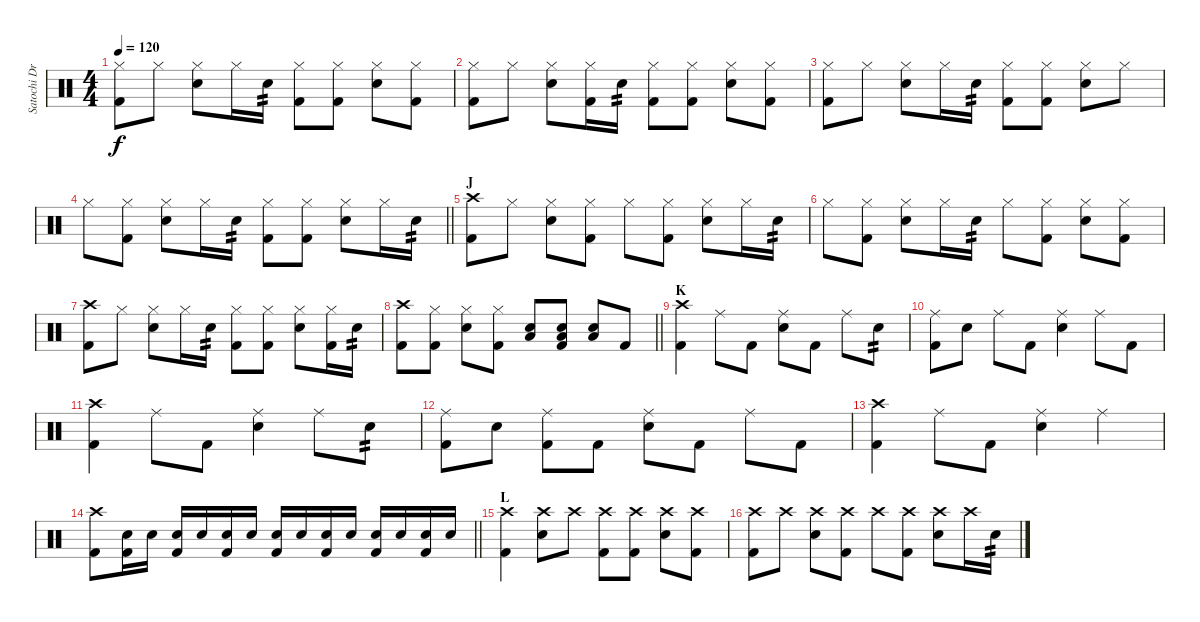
\track ("Satochi Drums" "Satochi Dr") {instrument percussion}
\staff {score}
\articulation defaults
\ts (4 4)
\tempo 120
\clef neutral
\ks c
("Hi-Hat (closed)" "Kick (hit) 2").8{dy f} "Hi-Hat (closed)".8 ("Hi-Hat (closed)" "Snare (hit) 2").8 "Hi-Hat (closed)".16 "Snare (hit) 2".16{tp 2} ("Hi-Hat (closed)" "Kick (hit) 2").8 ("Hi-Hat (closed)" "Kick (hit) 2").8 ("Hi-Hat (closed)" "Snare (hit) 2").8 ("Hi-Hat (closed)" "Kick (hit) 2").8 |
("Hi-Hat (closed)" "Kick (hit) 2").8 "Hi-Hat (closed)".8 ("Hi-Hat (closed)" "Snare (hit) 2").8 ("Hi-Hat (closed)" "Kick (hit) 2").16 "Snare (hit) 2".16{tp 2} ("Hi-Hat (closed)" "Kick (hit) 2").8 ("Hi-Hat (closed)" "Kick (hit) 2").8 ("Hi-Hat (closed)" "Snare (hit) 2").8 ("Hi-Hat (closed)" "Kick (hit) 2").8 |
("Hi-Hat (closed)" "Kick (hit) 2").8 "Hi-Hat (closed)".8 ("Hi-Hat (closed)" "Snare (hit) 2").8 "Hi-Hat (closed)".16 "Snare (hit) 2".16{tp 2} ("Hi-Hat (closed)" "Kick (hit) 2").8 ("Hi-Hat (closed)" "Kick (hit) 2").8 ("Hi-Hat (closed)" "Snare (hit) 2").8 "Hi-Hat (closed)".8 |
\barLineRight lightlight "Hi-Hat (closed)".8
("Hi-Hat (closed)" "Kick (hit) 2").8 ("Hi-Hat (closed)" "Snare (hit) 2").8 "Hi-Hat (closed)".16 "Snare (hit) 2".16{tp 2} ("Hi-Hat (closed)" "Kick (hit) 2").8 ("Hi-Hat (closed)" "Kick (hit) 2").8 ("Hi-Hat (closed)" "Snare (hit) 2").8 "Hi-Hat (closed)".16 "Snare (hit) 2".16{tp 2} |
\section ("" "J")
("Crash high (hit)" "Kick (hit) 2").8 "Hi-Hat (closed)".8 ("Hi-Hat (closed)" "Snare (hit) 2").8 ("Hi-Hat (closed)" "Kick (hit) 2").8 "Hi-Hat (closed)".8 ("Hi-Hat (closed)" "Kick (hit) 2").8 ("Hi-Hat (closed)" "Snare (hit) 2").8 "Hi-Hat (closed)".16 "Snare (hit) 2".16{tp 2} |
"Hi-Hat (closed)".8 ("Hi-Hat (closed)" "Kick (hit) 2").8 ("Hi-Hat (closed)" "Snare (hit) 2").8 "Hi-Hat (closed)".16 "Snare (hit) 2".16{tp 2} "Hi-Hat (closed)".8 ("Hi-Hat (closed)" "Kick (hit) 2").8 ("Hi-Hat (closed)" "Snare (hit) 2").8 ("Hi-Hat (closed)" "Kick (hit) 2").8 |
("Crash high (hit)" "Kick (hit) 2").8 "Hi-Hat (closed)".8 ("Hi-Hat (closed)" "Snare (hit) 2").8 "Hi-Hat (closed)".16 "Snare (hit) 2".16{tp 2} ("Hi-Hat (closed)" "Kick (hit) 2").8 ("Hi-Hat (closed)" "Kick (hit) 2").8 ("Hi-Hat (closed)" "Snare (hit) 2").8 ("Hi-Hat (closed)" "Kick (hit) 2").16 "Snare (hit) 2".16{tp 2} |
\barLineRight lightlight
("Crash high (hit)" "Kick (hit) 2").8 ("Hi-Hat (closed)" "Kick (hit) 2").8 ("Hi-Hat (closed)" "Snare (hit) 2").8 ("Hi-Hat (closed)" "Kick (hit) 2").8 ("Snare (hit) 2" "Low Floor Tom (hit)").8 ("Snare (hit) 2" "Low Floor Tom (hit)" "Kick (hit) 2").8 ("Snare (hit) 2" "Low Floor Tom (hit)").8 "Kick (hit) 2".8 |
\section ("" "K")
("Crash high (hit)" "Kick (hit) 2").4 "Ride (middle)".8 "Kick (hit) 2".8 ("Ride (middle)" "Snare (hit) 2").8 "Kick (hit) 2".8 "Ride (middle)".8 "Snare (hit) 2".8{tp 2} |
("Ride (middle)" "Kick (hit) 2").8 "Snare (hit) 2".8 "Ride (middle)".8 "Kick (hit) 2".8 ("Ride (middle)" "Snare (hit) 2").4 "Ride (middle)".8 "Kick (hit) 2".8 |
("Crash high (hit)" "Kick (hit) 2").4 "Ride (middle)".8 "Kick (hit) 2".8 ("Ride (middle)" "Snare (hit) 2").4 "Ride (middle)".8 "Snare (hit) 2".8{tp 2} |
("Ride (middle)" "Kick (hit) 2").8 "Snare (hit) 2".8 ("Ride (middle)" "Kick (hit) 2").8 "Kick (hit) 2".8 ("Ride (middle)" "Snare (hit) 2").8 "Kick (hit) 2".8 "Ride (middle)".8 "Kick (hit) 2".8 |
("Crash high (hit)" "Kick (hit) 2").4 "Ride (middle)".8 "Kick (hit) 2".8 ("Ride (middle)" "Snare (hit) 2").4 "Ride (middle)".4 |
\barLineRight lightlight
("Crash high (hit)" "Kick (hit) 2").8 ("Snare (hit) 2" "Kick (hit) 2").16{volume 9} "Snare (hit) 2".16{volume 13} ("Snare (hit) 2" "Kick (hit) 2").16 "Snare (hit) 2".16 ("Snare (hit) 2" "Kick (hit) 2").16 "Snare (hit) 2".16 ("Snare (hit) 2" "Kick (hit) 2").16 "Snare (hit) 2".16 ("Snare (hit) 2" "Kick (hit) 2").16 "Snare (hit) 2".16 ("Snare (hit) 2" "Kick (hit) 2").16 "Snare (hit) 2".16 ("Snare (hit) 2" "Kick (hit) 2").16 "Snare (hit) 2".16 |
\section ("" "L")
("Crash high (hit)" "Kick (hit) 2").4 ("Crash high (hit)" "Snare (hit) 2").8 "Crash high (hit)".8 ("Crash high (hit)" "Kick (hit) 2").8 ("Crash high (hit)" "Kick (hit) 2").8 ("Crash high (hit)" "Snare (hit) 2").8 ("Crash high (hit)" "Kick (hit) 2").8 |
("Crash high (hit)" "Kick (hit) 2").8 "Crash high (hit)".8 ("Crash high (hit)" "Snare (hit) 2").8 ("Crash high (hit)" "Kick (hit) 2").8 "Crash high (hit)".8 ("Crash high (hit)" "Kick (hit) 2").8 ("Crash high (hit)" "Snare (hit) 2").8 "Crash high (hit)".16 "Snare (hit) 2".16{tp 2}
